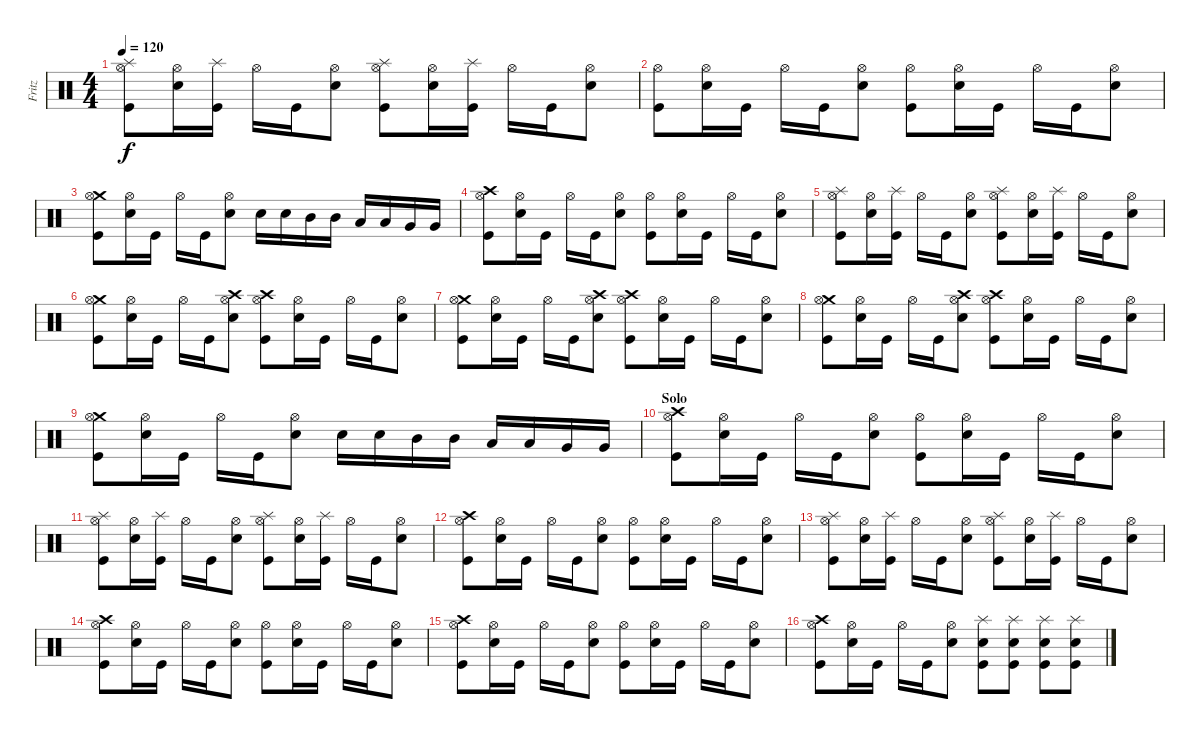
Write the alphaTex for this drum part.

\track ("Fritz" "Fritz") {instrument percussion}
\staff {score}
\articulation defaults
\ts (4 4)
\tempo 120
\clef neutral
\ks c
("Splash (hit)" "Hi-Hat (open)" "Kick (hit)").8{dy f} ("Hi-Hat (open)" "Snare (hit) 2").16 ("Splash (hit)" "Kick (hit)").16 "Hi-Hat (open)".16 "Kick (hit)".16 ("Hi-Hat (open)" "Snare (hit) 2").8 ("Splash (hit)" "Hi-Hat (open)" "Kick (hit)").8 ("Hi-Hat (open)" "Snare (hit) 2").16 ("Splash (hit)" "Kick (hit)").16 "Hi-Hat (open)".16 "Kick (hit)".16 ("Hi-Hat (open)" "Snare (hit) 2").8 |
("Hi-Hat (open)" "Kick (hit)").8 ("Hi-Hat (open)" "Snare (hit) 2").16 "Kick (hit)".16 "Hi-Hat (open)".16 "Kick (hit)".16 ("Hi-Hat (open)" "Snare (hit) 2").8 ("Hi-Hat (open)" "Kick (hit)").8 ("Hi-Hat (open)" "Snare (hit) 2").16 "Kick (hit)".16 "Hi-Hat (open)".16 "Kick (hit)".16 ("Hi-Hat (open)" "Snare (hit) 2").8 |
("Crash medium (hit)" "Hi-Hat (open)" "Kick (hit)").8 ("Hi-Hat (open)" "Snare (hit) 2").16 "Kick (hit)".16 "Hi-Hat (open)".16 "Kick (hit)".16 ("Hi-Hat (open)" "Snare (hit) 2").8 "Snare (hit) 2".16 "Snare (hit) 2".16 "Mid Tom (hit)".16 "Mid Tom (hit)".16 "Low Tom (hit)".16 "Low Tom (hit)".16 "Very Low Tom (hit)".16 "Very Low Tom (hit)".16 |
("Crash high (hit)" "Hi-Hat (open)" "Kick (hit)").8 ("Hi-Hat (open)" "Snare (hit) 2").16 "Kick (hit)".16 "Hi-Hat (open)".16 "Kick (hit)".16 ("Hi-Hat (open)" "Snare (hit) 2").8 ("Hi-Hat (open)" "Kick (hit)").8 ("Hi-Hat (open)" "Snare (hit) 2").16 "Kick (hit)".16 "Hi-Hat (open)".16 "Kick (hit)".16 ("Hi-Hat (open)" "Snare (hit) 2").8 |
("Splash (hit)" "Hi-Hat (open)" "Kick (hit)").8 ("Hi-Hat (open)" "Snare (hit) 2").16 ("Splash (hit)" "Kick (hit)").16 "Hi-Hat (open)".16 "Kick (hit)".16 ("Hi-Hat (open)" "Snare (hit) 2").8 ("Splash (hit)" "Hi-Hat (open)" "Kick (hit)").8 ("Hi-Hat (open)" "Snare (hit) 2").16 ("Splash (hit)" "Kick (hit)").16 "Hi-Hat (open)".16 "Kick (hit)".16 ("Hi-Hat (open)" "Snare (hit) 2").8 |
("Crash medium (hit)" "Hi-Hat (open)" "Kick (hit)").8 ("Hi-Hat (open)" "Snare (hit) 2").16 "Kick (hit)".16 "Hi-Hat (open)".16 "Kick (hit)".16 ("Crash high (hit)" "Hi-Hat (open)" "Snare (hit) 2").8 ("Crash high (hit)" "Hi-Hat (open)" "Kick (hit)").8 ("Hi-Hat (open)" "Snare (hit) 2").16 "Kick (hit)".16 "Hi-Hat (open)".16 "Kick (hit)".16 ("Hi-Hat (open)" "Snare (hit) 2").8 |
("Crash medium (hit)" "Hi-Hat (open)" "Kick (hit)").8 ("Hi-Hat (open)" "Snare (hit) 2").16 "Kick (hit)".16 "Hi-Hat (open)".16 "Kick (hit)".16 ("Crash high (hit)" "Hi-Hat (open)" "Snare (hit) 2").8 ("Crash high (hit)" "Hi-Hat (open)" "Kick (hit)").8 ("Hi-Hat (open)" "Snare (hit) 2").16 "Kick (hit)".16 "Hi-Hat (open)".16 "Kick (hit)".16 ("Hi-Hat (open)" "Snare (hit) 2").8 |
("Crash medium (hit)" "Hi-Hat (open)" "Kick (hit)").8 ("Hi-Hat (open)" "Snare (hit) 2").16 "Kick (hit)".16 "Hi-Hat (open)".16 "Kick (hit)".16 ("Crash high (hit)" "Hi-Hat (open)" "Snare (hit) 2").8 ("Crash high (hit)" "Hi-Hat (open)" "Kick (hit)").8 ("Hi-Hat (open)" "Snare (hit) 2").16 "Kick (hit)".16 "Hi-Hat (open)".16 "Kick (hit)".16 ("Hi-Hat (open)" "Snare (hit) 2").8 |
("Crash medium (hit)" "Hi-Hat (open)" "Kick (hit)").8 ("Hi-Hat (open)" "Snare (hit) 2").16 "Kick (hit)".16 "Hi-Hat (open)".16 "Kick (hit)".16 ("Hi-Hat (open)" "Snare (hit) 2").8 "Snare (hit) 2".16 "Snare (hit) 2".16 "Mid Tom (hit)".16 "Mid Tom (hit)".16 "Low Tom (hit)".16 "Low Tom (hit)".16 "Very Low Tom (hit)".16 "Very Low Tom (hit)".16 |
\section ("" "Solo")
("Crash high (hit)" "Hi-Hat (open)" "Kick (hit)").8 ("Hi-Hat (open)" "Snare (hit) 2").16 "Kick (hit)".16 "Hi-Hat (open)".16 "Kick (hit)".16 ("Hi-Hat (open)" "Snare (hit) 2").8 ("Hi-Hat (open)" "Kick (hit)").8 ("Hi-Hat (open)" "Snare (hit) 2").16 "Kick (hit)".16 "Hi-Hat (open)".16 "Kick (hit)".16 ("Hi-Hat (open)" "Snare (hit) 2").8 |
("Splash (hit)" "Hi-Hat (open)" "Kick (hit)").8 ("Hi-Hat (open)" "Snare (hit) 2").16 ("Splash (hit)" "Kick (hit)").16 "Hi-Hat (open)".16 "Kick (hit)".16 ("Hi-Hat (open)" "Snare (hit) 2").8 ("Splash (hit)" "Hi-Hat (open)" "Kick (hit)").8 ("Hi-Hat (open)" "Snare (hit) 2").16 ("Splash (hit)" "Kick (hit)").16 "Hi-Hat (open)".16 "Kick (hit)".16 ("Hi-Hat (open)" "Snare (hit) 2").8 |
("Crash high (hit)" "Hi-Hat (open)" "Kick (hit)").8 ("Hi-Hat (open)" "Snare (hit) 2").16 "Kick (hit)".16 "Hi-Hat (open)".16 "Kick (hit)".16 ("Hi-Hat (open)" "Snare (hit) 2").8 ("Hi-Hat (open)" "Kick (hit)").8 ("Hi-Hat (open)" "Snare (hit) 2").16 "Kick (hit)".16 "Hi-Hat (open)".16 "Kick (hit)".16 ("Hi-Hat (open)" "Snare (hit) 2").8 |
("Splash (hit)" "Hi-Hat (open)" "Kick (hit)").8 ("Hi-Hat (open)" "Snare (hit) 2").16 ("Splash (hit)" "Kick (hit)").16 "Hi-Hat (open)".16 "Kick (hit)".16 ("Hi-Hat (open)" "Snare (hit) 2").8 ("Splash (hit)" "Hi-Hat (open)" "Kick (hit)").8 ("Hi-Hat (open)" "Snare (hit) 2").16 ("Splash (hit)" "Kick (hit)").16 "Hi-Hat (open)".16 "Kick (hit)".16 ("Hi-Hat (open)" "Snare (hit) 2").8 |
("Crash high (hit)" "Hi-Hat (open)" "Kick (hit)").8 ("Hi-Hat (open)" "Snare (hit) 2").16 "Kick (hit)".16 "Hi-Hat (open)".16 "Kick (hit)".16 ("Hi-Hat (open)" "Snare (hit) 2").8 ("Hi-Hat (open)" "Kick (hit)").8 ("Hi-Hat (open)" "Snare (hit) 2").16 "Kick (hit)".16 "Hi-Hat (open)".16 "Kick (hit)".16 ("Hi-Hat (open)" "Snare (hit) 2").8 |
("Crash high (hit)" "Hi-Hat (open)" "Kick (hit)").8 ("Hi-Hat (open)" "Snare (hit) 2").16 "Kick (hit)".16 "Hi-Hat (open)".16 "Kick (hit)".16 ("Hi-Hat (open)" "Snare (hit) 2").8 ("Hi-Hat (open)" "Kick (hit)").8 ("Hi-Hat (open)" "Snare (hit) 2").16 "Kick (hit)".16 "Hi-Hat (open)".16 "Kick (hit)".16 ("Hi-Hat (open)" "Snare (hit) 2").8 |
("Crash high (hit)" "Hi-Hat (open)" "Kick (hit)").8 ("Hi-Hat (open)" "Snare (hit) 2").16 "Kick (hit)".16 "Hi-Hat (open)".16 "Kick (hit)".16 ("Hi-Hat (open)" "Snare (hit) 2").8 ("Splash (hit)" "Snare (hit) 2" "Kick (hit)").8 ("Splash (hit)" "Snare (hit) 2" "Kick (hit)").8 ("Splash (hit)" "Snare (hit) 2" "Kick (hit)").8 ("Splash (hit)" "Snare (hit) 2" "Kick (hit)").8
